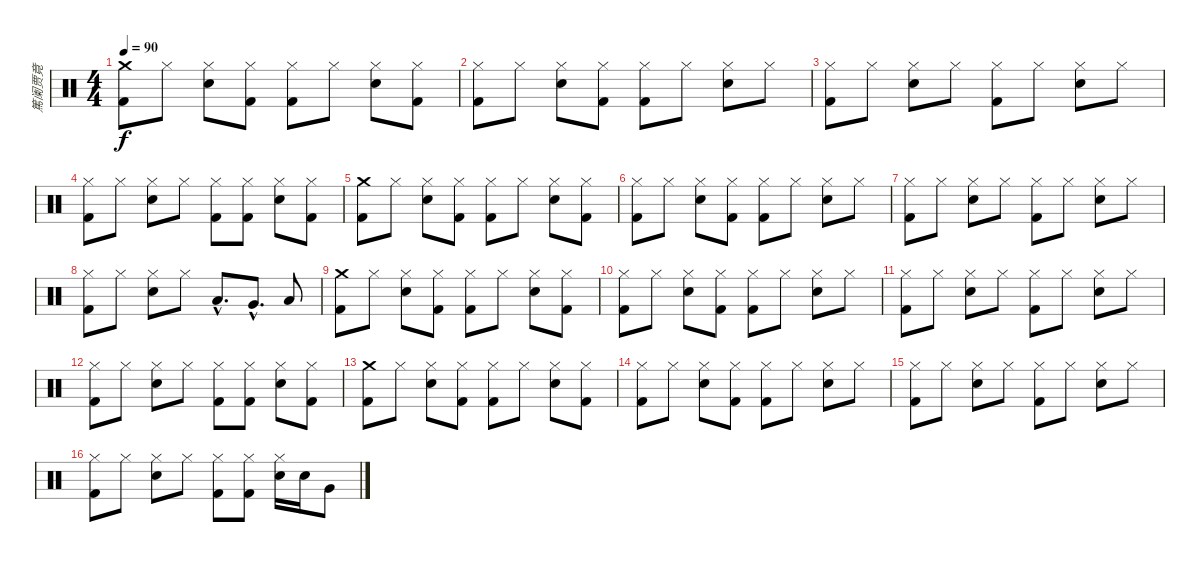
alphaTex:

\track ("篤阑贾竟" "篤阑贾竟") {instrument percussion}
\staff {score}
\articulation defaults
\ts (4 4)
\tempo 90
\clef neutral
\ks c
("Crash medium (hit)" "Kick (hit) 2").8{dy f} "Hi-Hat (closed)".8 ("Hi-Hat (closed)" "Snare (hit) 2").8 ("Hi-Hat (closed)" "Kick (hit) 2").8 ("Hi-Hat (closed)" "Kick (hit) 2").8 "Hi-Hat (closed)".8 ("Hi-Hat (closed)" "Snare (hit) 2").8 ("Hi-Hat (closed)" "Kick (hit) 2").8 |
("Hi-Hat (closed)" "Kick (hit) 2").8 "Hi-Hat (closed)".8 ("Hi-Hat (closed)" "Snare (hit) 2").8 ("Hi-Hat (closed)" "Kick (hit) 2").8 ("Hi-Hat (closed)" "Kick (hit) 2").8 "Hi-Hat (closed)".8 ("Hi-Hat (closed)" "Snare (hit) 2").8 "Hi-Hat (closed)".8 |
("Hi-Hat (closed)" "Kick (hit) 2").8 "Hi-Hat (closed)".8 ("Hi-Hat (closed)" "Snare (hit) 2").8 "Hi-Hat (closed)".8 ("Hi-Hat (closed)" "Kick (hit) 2").8 "Hi-Hat (closed)".8 ("Hi-Hat (closed)" "Snare (hit) 2").8 "Hi-Hat (closed)".8 |
("Hi-Hat (closed)" "Kick (hit) 2").8 "Hi-Hat (closed)".8 ("Hi-Hat (closed)" "Snare (hit) 2").8 "Hi-Hat (closed)".8 ("Hi-Hat (closed)" "Kick (hit) 2").8 ("Hi-Hat (closed)" "Kick (hit) 2").8 ("Hi-Hat (closed)" "Snare (hit) 2").8 ("Hi-Hat (closed)" "Kick (hit) 2").8 |
("Crash medium (hit)" "Kick (hit) 2").8 "Hi-Hat (closed)".8 ("Hi-Hat (closed)" "Snare (hit) 2").8 ("Hi-Hat (closed)" "Kick (hit) 2").8 ("Hi-Hat (closed)" "Kick (hit) 2").8 "Hi-Hat (closed)".8 ("Hi-Hat (closed)" "Snare (hit) 2").8 ("Hi-Hat (closed)" "Kick (hit) 2").8 |
("Hi-Hat (closed)" "Kick (hit) 2").8 "Hi-Hat (closed)".8 ("Hi-Hat (closed)" "Snare (hit) 2").8 ("Hi-Hat (closed)" "Kick (hit) 2").8 ("Hi-Hat (closed)" "Kick (hit) 2").8 "Hi-Hat (closed)".8 ("Hi-Hat (closed)" "Snare (hit) 2").8 "Hi-Hat (closed)".8 |
("Hi-Hat (closed)" "Kick (hit) 2").8 "Hi-Hat (closed)".8 ("Hi-Hat (closed)" "Snare (hit) 2").8 "Hi-Hat (closed)".8 ("Hi-Hat (closed)" "Kick (hit) 2").8 "Hi-Hat (closed)".8 ("Hi-Hat (closed)" "Snare (hit) 2").8 "Hi-Hat (closed)".8 |
("Hi-Hat (closed)" "Kick (hit) 2").8 "Hi-Hat (closed)".8 ("Hi-Hat (closed)" "Snare (hit) 2").8 "Hi-Hat (closed)".8 "Low Tom (hit)"{hac}.8{d} "Very Low Tom (hit)"{hac}.8{d} "Low Floor Tom (hit)".8 |
("Crash medium (hit)" "Kick (hit) 2").8 "Hi-Hat (closed)".8 ("Hi-Hat (closed)" "Snare (hit) 2").8 ("Hi-Hat (closed)" "Kick (hit) 2").8 ("Hi-Hat (closed)" "Kick (hit) 2").8 "Hi-Hat (closed)".8 ("Hi-Hat (closed)" "Snare (hit) 2").8 ("Hi-Hat (closed)" "Kick (hit) 2").8 |
("Hi-Hat (closed)" "Kick (hit) 2").8 "Hi-Hat (closed)".8 ("Hi-Hat (closed)" "Snare (hit) 2").8 ("Hi-Hat (closed)" "Kick (hit) 2").8 ("Hi-Hat (closed)" "Kick (hit) 2").8 "Hi-Hat (closed)".8 ("Hi-Hat (closed)" "Snare (hit) 2").8 "Hi-Hat (closed)".8 |
("Hi-Hat (closed)" "Kick (hit) 2").8 "Hi-Hat (closed)".8 ("Hi-Hat (closed)" "Snare (hit) 2").8 "Hi-Hat (closed)".8 ("Hi-Hat (closed)" "Kick (hit) 2").8 "Hi-Hat (closed)".8 ("Hi-Hat (closed)" "Snare (hit) 2").8 "Hi-Hat (closed)".8 |
("Hi-Hat (closed)" "Kick (hit) 2").8 "Hi-Hat (closed)".8 ("Hi-Hat (closed)" "Snare (hit) 2").8 "Hi-Hat (closed)".8 ("Hi-Hat (closed)" "Kick (hit) 2").8 ("Hi-Hat (closed)" "Kick (hit) 2").8 ("Hi-Hat (closed)" "Snare (hit) 2").8 ("Hi-Hat (closed)" "Kick (hit) 2").8 |
("Crash medium (hit)" "Kick (hit) 2").8 "Hi-Hat (closed)".8 ("Hi-Hat (closed)" "Snare (hit) 2").8 ("Hi-Hat (closed)" "Kick (hit) 2").8 ("Hi-Hat (closed)" "Kick (hit) 2").8 "Hi-Hat (closed)".8 ("Hi-Hat (closed)" "Snare (hit) 2").8 ("Hi-Hat (closed)" "Kick (hit) 2").8 |
("Hi-Hat (closed)" "Kick (hit) 2").8 "Hi-Hat (closed)".8 ("Hi-Hat (closed)" "Snare (hit) 2").8 ("Hi-Hat (closed)" "Kick (hit) 2").8 ("Hi-Hat (closed)" "Kick (hit) 2").8 "Hi-Hat (closed)".8 ("Hi-Hat (closed)" "Snare (hit) 2").8 "Hi-Hat (closed)".8 |
("Hi-Hat (closed)" "Kick (hit) 2").8 "Hi-Hat (closed)".8 ("Hi-Hat (closed)" "Snare (hit) 2").8 "Hi-Hat (closed)".8 ("Hi-Hat (closed)" "Kick (hit) 2").8 "Hi-Hat (closed)".8 ("Hi-Hat (closed)" "Snare (hit) 2").8 "Hi-Hat (closed)".8 |
("Hi-Hat (closed)" "Kick (hit) 2").8 "Hi-Hat (closed)".8 ("Hi-Hat (closed)" "Snare (hit) 2").8 "Hi-Hat (closed)".8 ("Hi-Hat (closed)" "Kick (hit) 2").8 ("Hi-Hat (closed)" "Kick (hit) 2").8 ("Hi-Hat (closed)" "Snare (hit) 2").16 "Snare (hit) 2".16 "Very Low Tom (hit)".8
